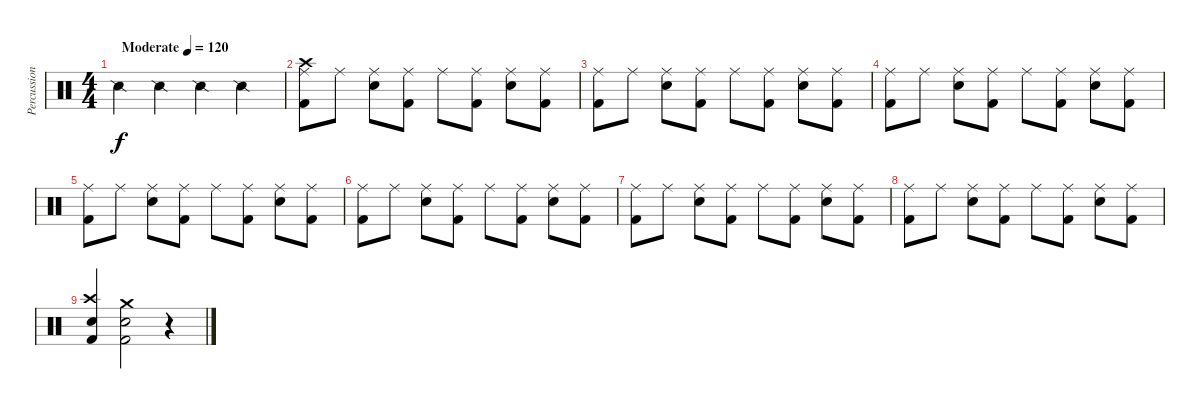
\track ("Percussioni" "Percussion") {instrument percussion}
\staff {score}
\articulation defaults
\ts (4 4)
\tempo (120 "Moderate")
\clef neutral
\ks c "Snare (side stick) 2".4{dy f} "Snare (side stick) 2".4 "Snare (side stick) 2".4 "Snare (side stick) 2".4
|
("Kick (hit) 2" "Crash high (hit)" "Ride (middle)").8 "Ride (middle)".8 ("Electric Snare (hit)" "Ride (middle)").8 ("Kick (hit) 2" "Ride (middle)").8 "Ride (middle)".8 ("Kick (hit) 2" "Ride (middle)").8 ("Electric Snare (hit)" "Ride (middle)").8 ("Kick (hit) 2" "Ride (middle)").8 |
("Kick (hit) 2" "Ride (middle)").8 "Ride (middle)".8 ("Electric Snare (hit)" "Ride (middle)").8 ("Kick (hit) 2" "Ride (middle)").8 "Ride (middle)".8 ("Kick (hit) 2" "Ride (middle)").8 ("Electric Snare (hit)" "Ride (middle)").8 ("Kick (hit) 2" "Ride (middle)").8 |
("Kick (hit) 2" "Ride (middle)").8 "Ride (middle)".8 ("Electric Snare (hit)" "Ride (middle)").8 ("Kick (hit) 2" "Ride (middle)").8 "Ride (middle)".8 ("Kick (hit) 2" "Ride (middle)").8 ("Electric Snare (hit)" "Ride (middle)").8 ("Kick (hit) 2" "Ride (middle)").8 |
("Kick (hit) 2" "Ride (middle)").8 "Ride (middle)".8 ("Electric Snare (hit)" "Ride (middle)").8 ("Kick (hit) 2" "Ride (middle)").8 "Ride (middle)".8 ("Kick (hit) 2" "Ride (middle)").8 ("Electric Snare (hit)" "Ride (middle)").8 ("Kick (hit) 2" "Ride (middle)").8 |
("Kick (hit) 2" "Ride (middle)").8 "Ride (middle)".8 ("Electric Snare (hit)" "Ride (middle)").8 ("Kick (hit) 2" "Ride (middle)").8 "Ride (middle)".8 ("Kick (hit) 2" "Ride (middle)").8 ("Electric Snare (hit)" "Ride (middle)").8 ("Kick (hit) 2" "Ride (middle)").8 |
("Kick (hit) 2" "Ride (middle)").8 "Ride (middle)".8 ("Electric Snare (hit)" "Ride (middle)").8 ("Kick (hit) 2" "Ride (middle)").8 "Ride (middle)".8 ("Kick (hit) 2" "Ride (middle)").8 ("Electric Snare (hit)" "Ride (middle)").8 ("Kick (hit) 2" "Ride (middle)").8 |
("Kick (hit) 2" "Ride (middle)").8 "Ride (middle)".8 ("Electric Snare (hit)" "Ride (middle)").8 ("Kick (hit) 2" "Ride (middle)").8 "Ride (middle)".8 ("Kick (hit) 2" "Ride (middle)").8 ("Electric Snare (hit)" "Ride (middle)").8 ("Kick (hit) 2" "Ride (middle)").8 |
("Kick (hit) 2" "Electric Snare (hit)" "Crash high (hit)").4 ("Kick (hit) 2" "Electric Snare (hit)" "Crash medium (hit)").2 r.4
